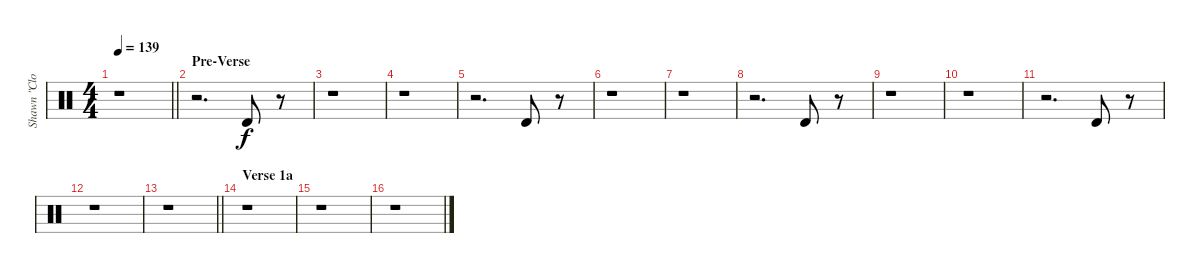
\track ("Shawn \"Clown\" Crahan & Chris Fehn" "Shawn \"Clo") {instrument percussion}
\staff {score}
\articulation defaults
\ts (4 4)
\tempo 139
\clef neutral
\barLineRight lightlight
\ks c
r.1{dy f} |
\section ("" "Pre-Verse ")
r.2{d} "Timbale high (hit)".8 r.8 |
r.1 |
r.1 |
r.2{d} "Timbale high (hit)".8 r.8 |
r.1 |
r.1 |
r.2{d} "Timbale high (hit)".8 r.8 |
r.1 |
r.1 |
r.2{d} "Timbale high (hit)".8 r.8 |
r.1 |
\barLineRight lightlight
r.1 |
\section ("" "Verse 1a")
r.1 |
r.1 |
r.1
